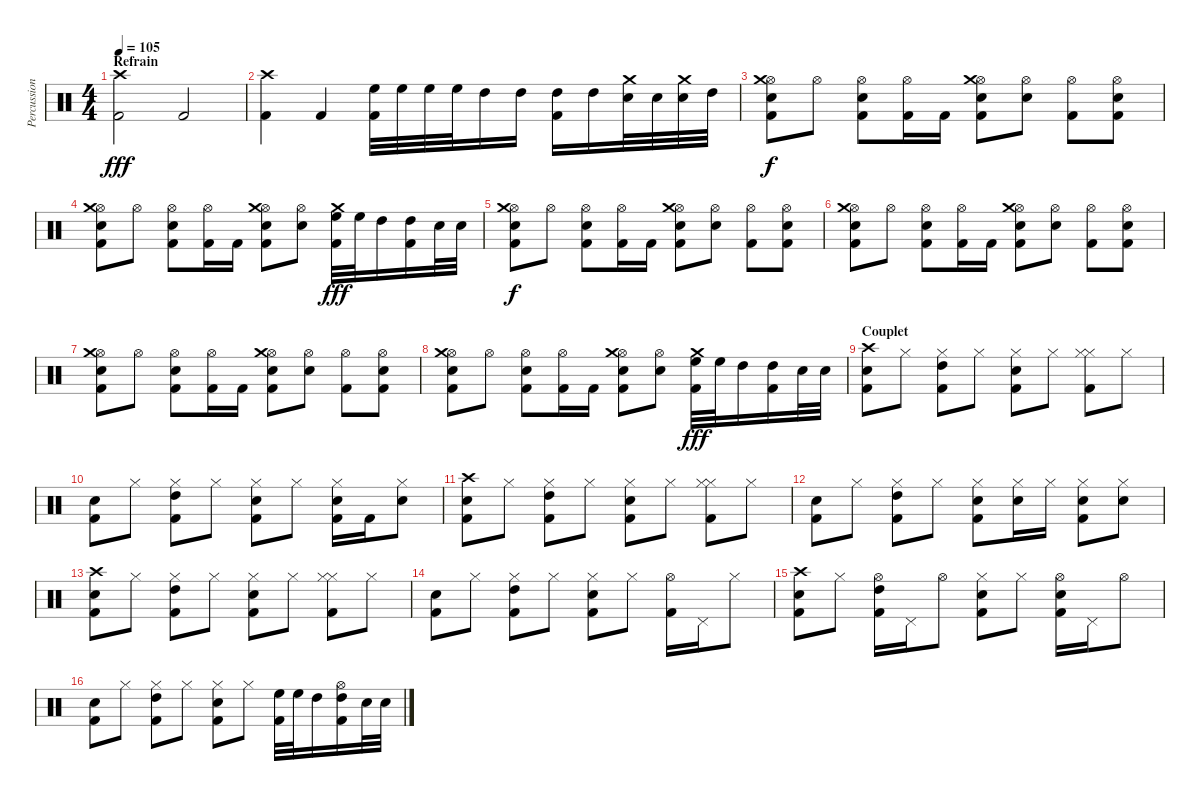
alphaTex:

\track ("Percussions" "Percussion") {instrument percussion}
\staff {score}
\articulation defaults
\ts (4 4)
\section ("" "Refrain")
\tempo 105
\clef neutral
\ks c
("Kick (hit) 2" "Crash high (hit)").2{dy fff} "Kick (hit) 2".2 |
("Kick (hit) 2" "Crash high (hit)").4 "Kick (hit) 2".4 ("Kick (hit) 2" "High Floor Tom (hit)").32 "High Floor Tom (hit)".32 "High Floor Tom (hit)".32 "High Floor Tom (hit)".32 "High Tom (hit)".16 "High Tom (hit)".16 ("Kick (hit) 2" "High Tom (hit)").16 "High Tom (hit)".16 ("Snare (hit) 2" "Crash medium (hit)").32 "Snare (hit) 2".32 ("Snare (hit) 2" "Crash medium (hit)").32 "High Tom (hit)".32 |
("Hi-Hat (open)" "Kick (hit) 2" "Snare (hit) 2" "Crash medium (hit)").8{dy f} "Hi-Hat (open)".8 ("Hi-Hat (open)" "Kick (hit) 2" "Snare (hit) 2").8 ("Hi-Hat (open)" "Kick (hit) 2").16 "Kick (hit) 2".16 ("Hi-Hat (open)" "Kick (hit) 2" "Snare (hit) 2" "Crash medium (hit)").8 ("Hi-Hat (open)" "Snare (hit) 2").8 ("Hi-Hat (open)" "Kick (hit) 2").8 ("Hi-Hat (open)" "Kick (hit) 2" "Snare (hit) 2").8 |
("Hi-Hat (open)" "Kick (hit) 2" "Snare (hit) 2" "Crash medium (hit)").8 "Hi-Hat (open)".8 ("Hi-Hat (open)" "Kick (hit) 2" "Snare (hit) 2").8 ("Hi-Hat (open)" "Kick (hit) 2").16 "Kick (hit) 2".16 ("Hi-Hat (open)" "Kick (hit) 2" "Snare (hit) 2" "Crash medium (hit)").8 ("Hi-Hat (open)" "Snare (hit) 2").8 ("Crash medium (hit)" "Kick (hit) 2" "High Floor Tom (hit)").32{dy fff} "High Floor Tom (hit)".32 "High Tom (hit)".16 ("Kick (hit) 2" "High Tom (hit)").16 "Snare (hit) 2".32 "Snare (hit) 2".32 |
("Hi-Hat (open)" "Kick (hit) 2" "Snare (hit) 2" "Crash medium (hit)").8{dy f} "Hi-Hat (open)".8 ("Hi-Hat (open)" "Kick (hit) 2" "Snare (hit) 2").8 ("Hi-Hat (open)" "Kick (hit) 2").16 "Kick (hit) 2".16 ("Hi-Hat (open)" "Kick (hit) 2" "Snare (hit) 2" "Crash medium (hit)").8 ("Hi-Hat (open)" "Snare (hit) 2").8 ("Hi-Hat (open)" "Kick (hit) 2").8 ("Hi-Hat (open)" "Kick (hit) 2" "Snare (hit) 2").8 |
("Hi-Hat (open)" "Kick (hit) 2" "Snare (hit) 2" "Crash medium (hit)").8 "Hi-Hat (open)".8 ("Hi-Hat (open)" "Kick (hit) 2" "Snare (hit) 2").8 ("Hi-Hat (open)" "Kick (hit) 2").16 "Kick (hit) 2".16 ("Hi-Hat (open)" "Kick (hit) 2" "Snare (hit) 2" "Crash medium (hit)").8 ("Hi-Hat (open)" "Snare (hit) 2").8 ("Hi-Hat (open)" "Kick (hit) 2").8 ("Hi-Hat (open)" "Kick (hit) 2" "Snare (hit) 2").8 |
("Hi-Hat (open)" "Kick (hit) 2" "Snare (hit) 2" "Crash medium (hit)").8 "Hi-Hat (open)".8 ("Hi-Hat (open)" "Kick (hit) 2" "Snare (hit) 2").8 ("Hi-Hat (open)" "Kick (hit) 2").16 "Kick (hit) 2".16 ("Hi-Hat (open)" "Kick (hit) 2" "Snare (hit) 2" "Crash medium (hit)").8 ("Hi-Hat (open)" "Snare (hit) 2").8 ("Hi-Hat (open)" "Kick (hit) 2").8 ("Hi-Hat (open)" "Kick (hit) 2" "Snare (hit) 2").8 |
("Hi-Hat (open)" "Kick (hit) 2" "Snare (hit) 2" "Crash medium (hit)").8 "Hi-Hat (open)".8 ("Hi-Hat (open)" "Kick (hit) 2" "Snare (hit) 2").8 ("Hi-Hat (open)" "Kick (hit) 2").16 "Kick (hit) 2".16 ("Hi-Hat (open)" "Kick (hit) 2" "Snare (hit) 2" "Crash medium (hit)").8 ("Hi-Hat (open)" "Snare (hit) 2").8 ("Crash medium (hit)" "Kick (hit) 2" "High Floor Tom (hit)").32{dy fff} "High Floor Tom (hit)".32 "High Tom (hit)".16 ("Kick (hit) 2" "High Tom (hit)").16 "Snare (hit) 2".32 "Snare (hit) 2".32 |
\section ("" "Couplet")
("Crash high (hit)" "Snare (hit) 2" "Kick (hit) 2").8 "Hi-Hat (closed)".8 ("Kick (hit) 2" "High Tom (hit)" "Hi-Hat (closed)").8 "Hi-Hat (closed)".8 ("Kick (hit) 2" "Snare (hit) 2" "Hi-Hat (closed)").8 "Hi-Hat (closed)".8 ("Kick (hit) 2" "Hi-Hat (closed)" "Hi-Hat (closed)").8 "Hi-Hat (closed)".8 |
("Snare (hit) 2" "Kick (hit) 2").8 "Hi-Hat (closed)".8 ("Kick (hit) 2" "High Tom (hit)" "Hi-Hat (closed)").8 "Hi-Hat (closed)".8 ("Kick (hit) 2" "Snare (hit) 2" "Hi-Hat (closed)").8 "Hi-Hat (closed)".8 ("Kick (hit) 2" "Snare (hit) 2" "Hi-Hat (closed)").16 "Kick (hit) 2".16 ("Snare (hit) 2" "Hi-Hat (closed)").8 |
("Crash high (hit)" "Snare (hit) 2" "Kick (hit) 2").8 "Hi-Hat (closed)".8 ("Kick (hit) 2" "High Tom (hit)" "Hi-Hat (closed)").8 "Hi-Hat (closed)".8 ("Kick (hit) 2" "Snare (hit) 2" "Hi-Hat (closed)").8 "Hi-Hat (closed)".8 ("Kick (hit) 2" "Hi-Hat (closed)" "Hi-Hat (closed)").8 "Hi-Hat (closed)".8 |
("Snare (hit) 2" "Kick (hit) 2").8 "Hi-Hat (closed)".8 ("Kick (hit) 2" "High Tom (hit)" "Hi-Hat (closed)").8 "Hi-Hat (closed)".8 ("Kick (hit) 2" "Snare (hit) 2" "Hi-Hat (closed)").8 ("Snare (hit) 2" "Hi-Hat (closed)").16 "Hi-Hat (closed)".16 ("Kick (hit) 2" "Snare (hit) 2" "Hi-Hat (closed)").8 ("Snare (hit) 2" "Hi-Hat (closed)").8 |
("Crash high (hit)" "Snare (hit) 2" "Kick (hit) 2").8 "Hi-Hat (closed)".8 ("Kick (hit) 2" "High Tom (hit)" "Hi-Hat (closed)").8 "Hi-Hat (closed)".8 ("Kick (hit) 2" "Snare (hit) 2" "Hi-Hat (closed)").8 "Hi-Hat (closed)".8 ("Kick (hit) 2" "Hi-Hat (closed)" "Hi-Hat (closed)").8 "Hi-Hat (closed)".8 |
("Snare (hit) 2" "Kick (hit) 2").8 "Hi-Hat (closed)".8 ("Kick (hit) 2" "High Tom (hit)" "Hi-Hat (closed)").8 "Hi-Hat (closed)".8 ("Kick (hit) 2" "Snare (hit) 2" "Hi-Hat (closed)").8 "Hi-Hat (closed)".8 ("Kick (hit) 2" "Hi-Hat (open)").16 "Pedal Hi-Hat (hit)".16 "Hi-Hat (closed)".8 |
("Crash high (hit)" "Snare (hit) 2" "Kick (hit) 2").8 "Hi-Hat (closed)".8 ("Kick (hit) 2" "High Tom (hit)" "Hi-Hat (open)").16 "Pedal Hi-Hat (hit)".16 "Hi-Hat (open)".8 ("Kick (hit) 2" "Snare (hit) 2" "Hi-Hat (closed)").8 "Hi-Hat (closed)".8 ("Kick (hit) 2" "Snare (hit) 2" "Hi-Hat (open)").16 "Pedal Hi-Hat (hit)".16 "Hi-Hat (open)".8 |
("Snare (hit) 2" "Kick (hit) 2").8 "Hi-Hat (closed)".8 ("Kick (hit) 2" "High Tom (hit)" "Hi-Hat (closed)").8 "Hi-Hat (closed)".8 ("Kick (hit) 2" "Snare (hit) 2" "Hi-Hat (closed)").8 "Hi-Hat (closed)".8 ("Kick (hit) 2" "High Floor Tom (hit)").32 "High Floor Tom (hit)".32 "High Tom (hit)".16 ("Kick (hit) 2" "Hi-Hat (open)" "High Tom (hit)").16 "Snare (hit) 2".32 "Snare (hit) 2".32
